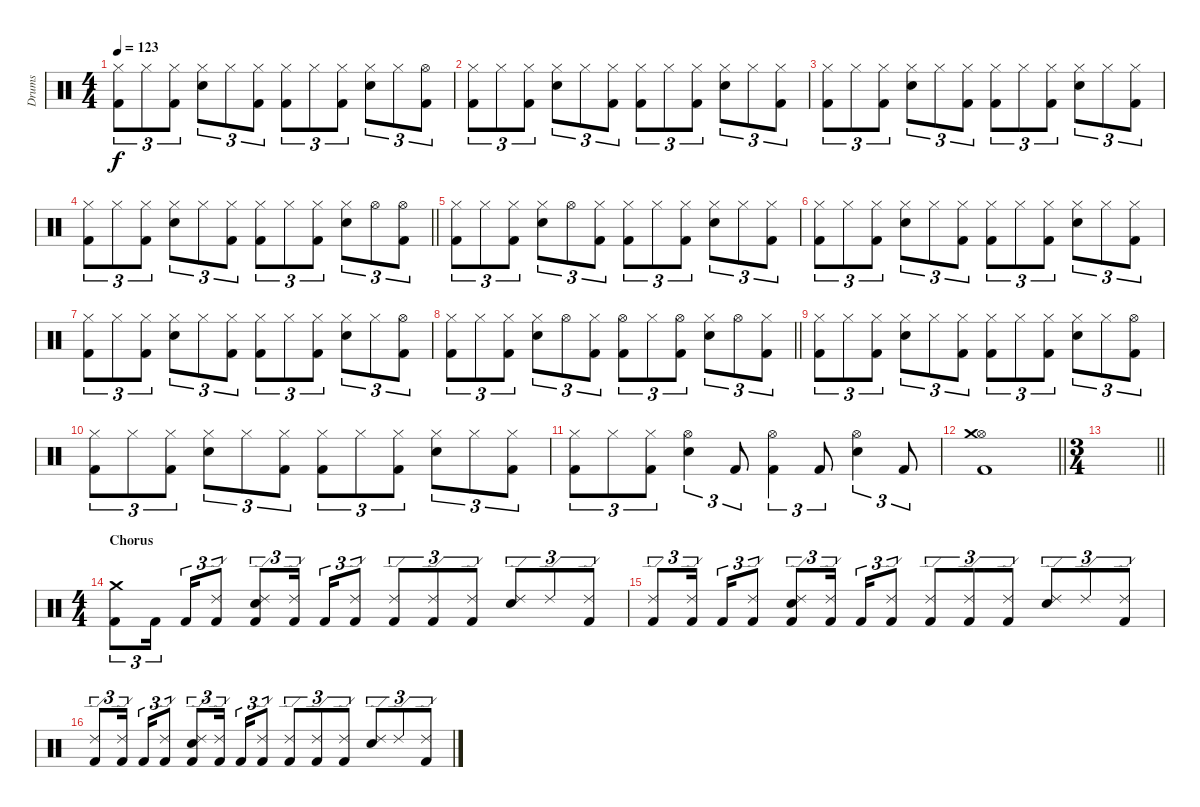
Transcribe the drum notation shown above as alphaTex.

\track ("Drums" "Drums") {instrument percussion}
\staff {score}
\articulation defaults
\ts (4 4)
\section ("" "")
\tempo 123
\clef neutral
\ks c
("Kick (hit) 2" "Hi-Hat (closed)").8{tu (3 2) dy f} "Hi-Hat (closed)".8{tu (3 2)} ("Kick (hit) 2" "Hi-Hat (closed)").8{tu (3 2)} ("Snare (hit) 2" "Hi-Hat (closed)").8{tu (3 2)} "Hi-Hat (closed)".8{tu (3 2)} ("Kick (hit) 2" "Hi-Hat (closed)").8{tu (3 2)} ("Kick (hit) 2" "Hi-Hat (closed)").8{tu (3 2)} "Hi-Hat (closed)".8{tu (3 2)} ("Kick (hit) 2" "Hi-Hat (closed)").8{tu (3 2)} ("Snare (hit) 2" "Hi-Hat (closed)").8{tu (3 2)} "Hi-Hat (closed)".8{tu (3 2)} ("Kick (hit) 2" "Hi-Hat (open)").8{tu (3 2)} |
("Kick (hit) 2" "Hi-Hat (closed)").8{tu (3 2)} "Hi-Hat (closed)".8{tu (3 2)} ("Kick (hit) 2" "Hi-Hat (closed)").8{tu (3 2)} ("Snare (hit) 2" "Hi-Hat (closed)").8{tu (3 2)} "Hi-Hat (closed)".8{tu (3 2)} ("Kick (hit) 2" "Hi-Hat (closed)").8{tu (3 2)} ("Kick (hit) 2" "Hi-Hat (closed)").8{tu (3 2)} "Hi-Hat (closed)".8{tu (3 2)} ("Kick (hit) 2" "Hi-Hat (closed)").8{tu (3 2)} ("Snare (hit) 2" "Hi-Hat (closed)").8{tu (3 2)} "Hi-Hat (closed)".8{tu (3 2)} ("Kick (hit) 2" "Hi-Hat (closed)").8{tu (3 2)} |
("Kick (hit) 2" "Hi-Hat (closed)").8{tu (3 2)} "Hi-Hat (closed)".8{tu (3 2)} ("Kick (hit) 2" "Hi-Hat (closed)").8{tu (3 2)} ("Snare (hit) 2" "Hi-Hat (closed)").8{tu (3 2)} "Hi-Hat (closed)".8{tu (3 2)} ("Kick (hit) 2" "Hi-Hat (closed)").8{tu (3 2)} ("Kick (hit) 2" "Hi-Hat (closed)").8{tu (3 2)} "Hi-Hat (closed)".8{tu (3 2)} ("Kick (hit) 2" "Hi-Hat (closed)").8{tu (3 2)} ("Snare (hit) 2" "Hi-Hat (closed)").8{tu (3 2)} "Hi-Hat (closed)".8{tu (3 2)} ("Kick (hit) 2" "Hi-Hat (closed)").8{tu (3 2)} |
\barLineRight lightlight
("Kick (hit) 2" "Hi-Hat (closed)").8{tu (3 2)} "Hi-Hat (closed)".8{tu (3 2)} ("Kick (hit) 2" "Hi-Hat (closed)").8{tu (3 2)} ("Snare (hit) 2" "Hi-Hat (closed)").8{tu (3 2)} "Hi-Hat (closed)".8{tu (3 2)} ("Kick (hit) 2" "Hi-Hat (closed)").8{tu (3 2)} ("Kick (hit) 2" "Hi-Hat (closed)").8{tu (3 2)} "Hi-Hat (closed)".8{tu (3 2)} ("Kick (hit) 2" "Hi-Hat (closed)").8{tu (3 2)} ("Snare (hit) 2" "Hi-Hat (closed)").8{tu (3 2)} "Hi-Hat (open)".8{tu (3 2)} ("Kick (hit) 2" "Hi-Hat (open)").8{tu (3 2)} |
\section ("" "")
("Kick (hit) 2" "Hi-Hat (closed)").8{tu (3 2)} "Hi-Hat (closed)".8{tu (3 2)} ("Kick (hit) 2" "Hi-Hat (closed)").8{tu (3 2)} ("Snare (hit) 2" "Hi-Hat (closed)").8{tu (3 2)} "Hi-Hat (open)".8{tu (3 2)} ("Kick (hit) 2" "Hi-Hat (closed)").8{tu (3 2)} ("Kick (hit) 2" "Hi-Hat (closed)").8{tu (3 2)} "Hi-Hat (closed)".8{tu (3 2)} ("Kick (hit) 2" "Hi-Hat (closed)").8{tu (3 2)} ("Snare (hit) 2" "Hi-Hat (closed)").8{tu (3 2)} "Hi-Hat (closed)".8{tu (3 2)} ("Kick (hit) 2" "Hi-Hat (closed)").8{tu (3 2)} |
("Kick (hit) 2" "Hi-Hat (closed)").8{tu (3 2)} "Hi-Hat (closed)".8{tu (3 2)} ("Kick (hit) 2" "Hi-Hat (closed)").8{tu (3 2)} ("Snare (hit) 2" "Hi-Hat (closed)").8{tu (3 2)} "Hi-Hat (closed)".8{tu (3 2)} ("Kick (hit) 2" "Hi-Hat (closed)").8{tu (3 2)} ("Kick (hit) 2" "Hi-Hat (closed)").8{tu (3 2)} "Hi-Hat (closed)".8{tu (3 2)} ("Kick (hit) 2" "Hi-Hat (closed)").8{tu (3 2)} ("Snare (hit) 2" "Hi-Hat (closed)").8{tu (3 2)} "Hi-Hat (closed)".8{tu (3 2)} ("Kick (hit) 2" "Hi-Hat (closed)").8{tu (3 2)} |
("Kick (hit) 2" "Hi-Hat (closed)").8{tu (3 2)} "Hi-Hat (closed)".8{tu (3 2)} ("Kick (hit) 2" "Hi-Hat (closed)").8{tu (3 2)} ("Snare (hit) 2" "Hi-Hat (closed)").8{tu (3 2)} "Hi-Hat (closed)".8{tu (3 2)} ("Kick (hit) 2" "Hi-Hat (closed)").8{tu (3 2)} ("Kick (hit) 2" "Hi-Hat (closed)").8{tu (3 2)} "Hi-Hat (closed)".8{tu (3 2)} ("Kick (hit) 2" "Hi-Hat (closed)").8{tu (3 2)} ("Snare (hit) 2" "Hi-Hat (closed)").8{tu (3 2)} "Hi-Hat (closed)".8{tu (3 2)} ("Kick (hit) 2" "Hi-Hat (open)").8{tu (3 2)} |
\barLineRight lightlight
("Kick (hit) 2" "Hi-Hat (closed)").8{tu (3 2)} "Hi-Hat (closed)".8{tu (3 2)} ("Kick (hit) 2" "Hi-Hat (closed)").8{tu (3 2)} ("Snare (hit) 2" "Hi-Hat (closed)").8{tu (3 2)} "Hi-Hat (open)".8{tu (3 2)} ("Kick (hit) 2" "Hi-Hat (closed)").8{tu (3 2)} ("Kick (hit) 2" "Hi-Hat (open)").8{tu (3 2)} "Hi-Hat (closed)".8{tu (3 2)} ("Kick (hit) 2" "Hi-Hat (open)").8{tu (3 2)} ("Snare (hit) 2" "Hi-Hat (closed)").8{tu (3 2)} "Hi-Hat (open)".8{tu (3 2)} ("Kick (hit) 2" "Hi-Hat (closed)").8{tu (3 2)} |
\section ("" "")
("Kick (hit) 2" "Hi-Hat (closed)").8{tu (3 2)} "Hi-Hat (closed)".8{tu (3 2)} ("Kick (hit) 2" "Hi-Hat (closed)").8{tu (3 2)} ("Snare (hit) 2" "Hi-Hat (closed)").8{tu (3 2)} "Hi-Hat (closed)".8{tu (3 2)} ("Kick (hit) 2" "Hi-Hat (closed)").8{tu (3 2)} ("Kick (hit) 2" "Hi-Hat (closed)").8{tu (3 2)} "Hi-Hat (closed)".8{tu (3 2)} ("Kick (hit) 2" "Hi-Hat (closed)").8{tu (3 2)} ("Snare (hit) 2" "Hi-Hat (closed)").8{tu (3 2)} "Hi-Hat (closed)".8{tu (3 2)} ("Kick (hit) 2" "Hi-Hat (open)").8{tu (3 2)} |
("Kick (hit) 2" "Hi-Hat (closed)").8{tu (3 2)} "Hi-Hat (closed)".8{tu (3 2)} ("Kick (hit) 2" "Hi-Hat (closed)").8{tu (3 2)} ("Snare (hit) 2" "Hi-Hat (closed)").8{tu (3 2)} "Hi-Hat (closed)".8{tu (3 2)} ("Kick (hit) 2" "Hi-Hat (closed)").8{tu (3 2)} ("Kick (hit) 2" "Hi-Hat (closed)").8{tu (3 2)} "Hi-Hat (closed)".8{tu (3 2)} ("Kick (hit) 2" "Hi-Hat (closed)").8{tu (3 2)} ("Snare (hit) 2" "Hi-Hat (closed)").8{tu (3 2)} "Hi-Hat (closed)".8{tu (3 2)} ("Kick (hit) 2" "Hi-Hat (closed)").8{tu (3 2)} |
("Kick (hit) 2" "Hi-Hat (closed)").8{tu (3 2)} "Hi-Hat (closed)".8{tu (3 2)} ("Kick (hit) 2" "Hi-Hat (closed)").8{tu (3 2)} ("Snare (hit) 2" "Hi-Hat (open)").4{tu (3 2)} "Kick (hit) 2".8{tu (3 2)} ("Kick (hit) 2" "Hi-Hat (open)").4{tu (3 2)} "Kick (hit) 2".8{tu (3 2)} ("Snare (hit) 2" "Hi-Hat (open)").4{tu (3 2)} "Kick (hit) 2".8{tu (3 2)} |
\barLineRight lightlight
("Kick (hit) 2" "Hi-Hat (open)" "Crash medium (hit)").1 |
\ts (3 4)
\section ("" "")
\barLineRight lightlight
|
\ts (4 4)
\section ("" "Chorus")
("Kick (hit) 2" "Crash medium (hit)").8{tu (3 2)} "Kick (hit) 2".16{tu (3 2) beam splitsecondary} "Kick (hit) 2".16{tu (3 2)} ("Kick (hit) 2" "Ride (edge) 2").8{tu (3 2)} ("Kick (hit) 2" "Snare (hit) 2" "Ride (edge) 2").8{tu (3 2)} ("Kick (hit) 2" "Ride (edge) 2").16{tu (3 2) beam splitsecondary} "Kick (hit) 2".16{tu (3 2)} ("Kick (hit) 2" "Ride (edge) 2").8{tu (3 2)} ("Kick (hit) 2" "Ride (edge) 2").8{tu (3 2)} ("Kick (hit) 2" "Ride (edge) 2").8{tu (3 2)} ("Kick (hit) 2" "Ride (edge) 2").8{tu (3 2)} ("Snare (hit) 2" "Ride (edge) 2").8{tu (3 2)} "Ride (edge) 2".8{tu (3 2)} ("Kick (hit) 2" "Ride (edge) 2").8{tu (3 2)} |
("Kick (hit) 2" "Ride (edge) 2").8{tu (3 2)} ("Kick (hit) 2" "Ride (edge) 2").16{tu (3 2) beam splitsecondary} "Kick (hit) 2".16{tu (3 2)} ("Kick (hit) 2" "Ride (edge) 2").8{tu (3 2)} ("Kick (hit) 2" "Snare (hit) 2" "Ride (edge) 2").8{tu (3 2)} ("Kick (hit) 2" "Ride (edge) 2").16{tu (3 2) beam splitsecondary} "Kick (hit) 2".16{tu (3 2)} ("Kick (hit) 2" "Ride (edge) 2").8{tu (3 2)} ("Kick (hit) 2" "Ride (edge) 2").8{tu (3 2)} ("Kick (hit) 2" "Ride (edge) 2").8{tu (3 2)} ("Kick (hit) 2" "Ride (edge) 2").8{tu (3 2)} ("Snare (hit) 2" "Ride (edge) 2").8{tu (3 2)} "Ride (edge) 2".8{tu (3 2)} ("Kick (hit) 2" "Ride (edge) 2").8{tu (3 2)} |
("Kick (hit) 2" "Ride (edge) 2").8{tu (3 2)} ("Kick (hit) 2" "Ride (edge) 2").16{tu (3 2) beam splitsecondary} "Kick (hit) 2".16{tu (3 2)} ("Kick (hit) 2" "Ride (edge) 2").8{tu (3 2)} ("Kick (hit) 2" "Snare (hit) 2" "Ride (edge) 2").8{tu (3 2)} ("Kick (hit) 2" "Ride (edge) 2").16{tu (3 2) beam splitsecondary} "Kick (hit) 2".16{tu (3 2)} ("Kick (hit) 2" "Ride (edge) 2").8{tu (3 2)} ("Kick (hit) 2" "Ride (edge) 2").8{tu (3 2)} ("Kick (hit) 2" "Ride (edge) 2").8{tu (3 2)} ("Kick (hit) 2" "Ride (edge) 2").8{tu (3 2)} ("Snare (hit) 2" "Ride (edge) 2").8{tu (3 2)} "Ride (edge) 2".8{tu (3 2)} ("Kick (hit) 2" "Ride (edge) 2").8{tu (3 2)}
